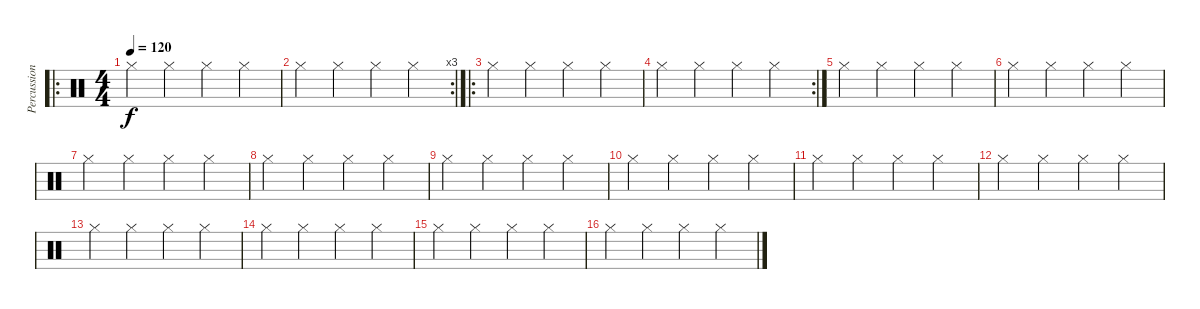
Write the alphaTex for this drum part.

\track ("Percussioni" "Percussion") {instrument percussion}
\staff {score}
\articulation defaults
\ro
\ts (4 4)
\tempo 120
\clef neutral
\ks c "Hi-Hat (closed)".4{dy f} "Hi-Hat (closed)".4 "Hi-Hat (closed)".4 "Hi-Hat (closed)".4
|
\rc 3 "Hi-Hat (closed)".4 "Hi-Hat (closed)".4 "Hi-Hat (closed)".4 "Hi-Hat (closed)".4
|
\ro "Hi-Hat (closed)".4 "Hi-Hat (closed)".4 "Hi-Hat (closed)".4 "Hi-Hat (closed)".4
|
\rc 2 "Hi-Hat (closed)".4 "Hi-Hat (closed)".4 "Hi-Hat (closed)".4 "Hi-Hat (closed)".4
|
"Hi-Hat (closed)".4 "Hi-Hat (closed)".4 "Hi-Hat (closed)".4 "Hi-Hat (closed)".4 |
"Hi-Hat (closed)".4 "Hi-Hat (closed)".4 "Hi-Hat (closed)".4 "Hi-Hat (closed)".4 |
"Hi-Hat (closed)".4 "Hi-Hat (closed)".4 "Hi-Hat (closed)".4 "Hi-Hat (closed)".4 |
"Hi-Hat (closed)".4 "Hi-Hat (closed)".4 "Hi-Hat (closed)".4 "Hi-Hat (closed)".4 |
"Hi-Hat (closed)".4 "Hi-Hat (closed)".4 "Hi-Hat (closed)".4 "Hi-Hat (closed)".4 |
"Hi-Hat (closed)".4 "Hi-Hat (closed)".4 "Hi-Hat (closed)".4 "Hi-Hat (closed)".4 |
"Hi-Hat (closed)".4 "Hi-Hat (closed)".4 "Hi-Hat (closed)".4 "Hi-Hat (closed)".4 |
"Hi-Hat (closed)".4 "Hi-Hat (closed)".4 "Hi-Hat (closed)".4 "Hi-Hat (closed)".4 |
"Hi-Hat (closed)".4 "Hi-Hat (closed)".4 "Hi-Hat (closed)".4 "Hi-Hat (closed)".4 |
"Hi-Hat (closed)".4 "Hi-Hat (closed)".4 "Hi-Hat (closed)".4 "Hi-Hat (closed)".4 |
"Hi-Hat (closed)".4 "Hi-Hat (closed)".4 "Hi-Hat (closed)".4 "Hi-Hat (closed)".4 |
"Hi-Hat (closed)".4 "Hi-Hat (closed)".4 "Hi-Hat (closed)".4 "Hi-Hat (closed)".4
